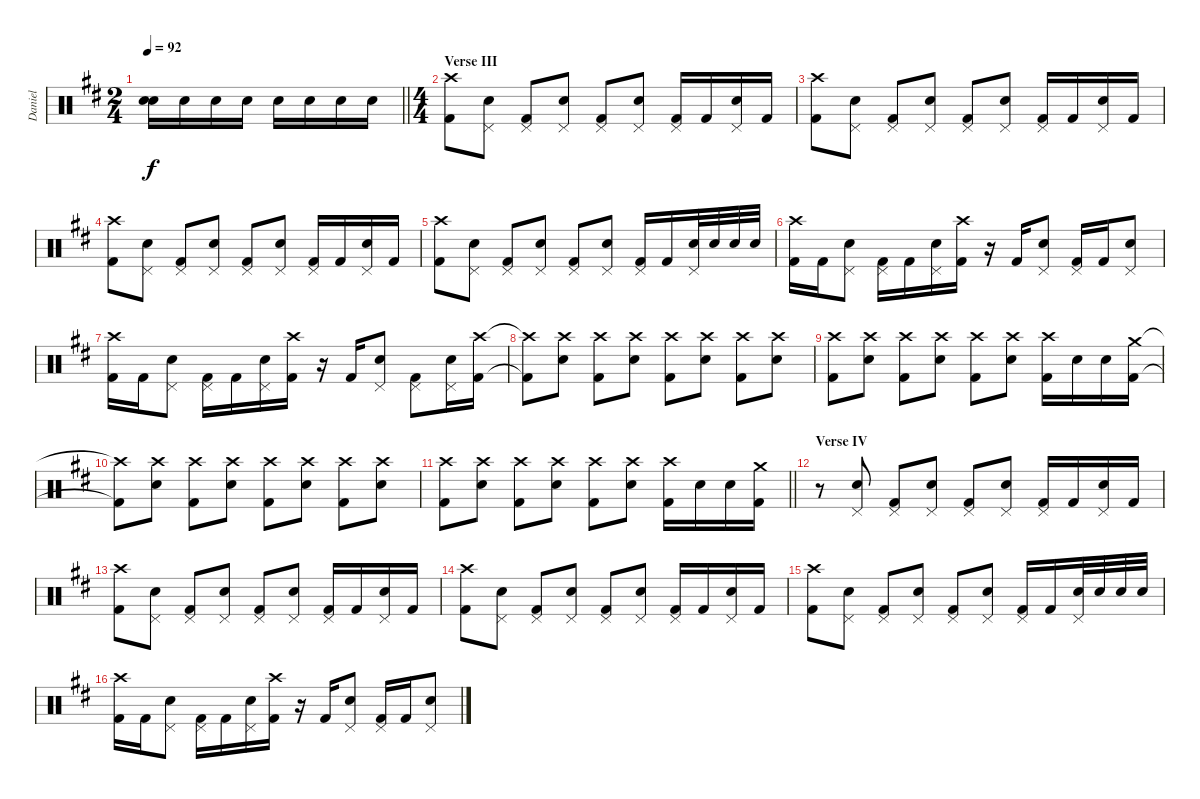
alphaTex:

\track ("Daniel" "Daniel") {instrument percussion}
\staff {score}
\articulation defaults
\ts (2 4)
\tempo 92
\clef neutral
\barLineRight lightlight
\ks bminor
("Snare (hit)"{t} "Snare (hit)"{t}).16{dy f} "Electric Snare (hit)".16 "Electric Snare (hit)".16 "Electric Snare (hit)".16 "Electric Snare (hit)".16 "Electric Snare (hit)".16 "Electric Snare (hit)".16 "Electric Snare (hit)".16 |
\ts (4 4)
\section ("" "Verse III")
("Crash high (hit)" "Kick (hit) 2").8 ("Pedal Hi-Hat (hit)" "Electric Snare (hit)").8 ("Pedal Hi-Hat (hit)" "Kick (hit) 2").8 ("Pedal Hi-Hat (hit)" "Electric Snare (hit)").8 ("Pedal Hi-Hat (hit)" "Kick (hit) 2").8 ("Pedal Hi-Hat (hit)" "Electric Snare (hit)").8 ("Pedal Hi-Hat (hit)" "Kick (hit) 2").16 "Kick (hit) 2".16 ("Pedal Hi-Hat (hit)" "Electric Snare (hit)").16 "Kick (hit) 2".16 |
("Crash high (hit)" "Kick (hit) 2").8 ("Pedal Hi-Hat (hit)" "Electric Snare (hit)").8 ("Pedal Hi-Hat (hit)" "Kick (hit) 2").8 ("Pedal Hi-Hat (hit)" "Electric Snare (hit)").8 ("Pedal Hi-Hat (hit)" "Kick (hit) 2").8 ("Pedal Hi-Hat (hit)" "Electric Snare (hit)").8 ("Pedal Hi-Hat (hit)" "Kick (hit) 2").16 "Kick (hit) 2".16 ("Pedal Hi-Hat (hit)" "Electric Snare (hit)").16 "Kick (hit) 2".16 |
("Crash high (hit)" "Kick (hit) 2").8 ("Pedal Hi-Hat (hit)" "Electric Snare (hit)").8 ("Pedal Hi-Hat (hit)" "Kick (hit) 2").8 ("Pedal Hi-Hat (hit)" "Electric Snare (hit)").8 ("Pedal Hi-Hat (hit)" "Kick (hit) 2").8 ("Pedal Hi-Hat (hit)" "Electric Snare (hit)").8 ("Pedal Hi-Hat (hit)" "Kick (hit) 2").16 "Kick (hit) 2".16 ("Pedal Hi-Hat (hit)" "Electric Snare (hit)").16 "Kick (hit) 2".16 |
("Crash high (hit)" "Kick (hit) 2").8 ("Pedal Hi-Hat (hit)" "Electric Snare (hit)").8 ("Pedal Hi-Hat (hit)" "Kick (hit) 2").8 ("Pedal Hi-Hat (hit)" "Electric Snare (hit)").8 ("Pedal Hi-Hat (hit)" "Kick (hit) 2").8 ("Pedal Hi-Hat (hit)" "Electric Snare (hit)").8 ("Pedal Hi-Hat (hit)" "Kick (hit) 2").16 "Kick (hit) 2".16 ("Pedal Hi-Hat (hit)" "Electric Snare (hit)").32 "Electric Snare (hit)".32 "Electric Snare (hit)".32 "Electric Snare (hit)".32 |
("Crash high (hit)" "Kick (hit) 2").16 "Kick (hit) 2".16 ("Pedal Hi-Hat (hit)" "Electric Snare (hit)").8 ("Pedal Hi-Hat (hit)" "Kick (hit) 2").16 "Kick (hit) 2".16 ("Pedal Hi-Hat (hit)" "Electric Snare (hit)").16 ("Crash high (hit)" "Kick (hit) 2").16 r.16 "Kick (hit) 2".16 ("Pedal Hi-Hat (hit)" "Electric Snare (hit)").8 ("Pedal Hi-Hat (hit)" "Kick (hit) 2").16 "Kick (hit) 2".16 ("Pedal Hi-Hat (hit)" "Electric Snare (hit)").8 |
("Crash high (hit)" "Kick (hit) 2").16 "Kick (hit) 2".16 ("Pedal Hi-Hat (hit)" "Electric Snare (hit)").8 ("Pedal Hi-Hat (hit)" "Kick (hit) 2").16 "Kick (hit) 2".16 ("Pedal Hi-Hat (hit)" "Electric Snare (hit)").16 ("Crash high (hit)" "Kick (hit) 2").16 r.16 "Kick (hit) 2".16 ("Pedal Hi-Hat (hit)" "Electric Snare (hit)").8 ("Pedal Hi-Hat (hit)" "Kick (hit) 2").8 ("Pedal Hi-Hat (hit)" "Electric Snare (hit)").16 ("Crash high (hit)" "Kick (hit) 2").16 |
("Crash high (hit)"{t} "Kick (hit) 2"{t}).8 ("Crash high (hit)" "Electric Snare (hit)").8 ("Crash high (hit)" "Kick (hit) 2").8 ("Crash high (hit)" "Electric Snare (hit)").8 ("Crash high (hit)" "Kick (hit) 2").8 ("Crash high (hit)" "Electric Snare (hit)").8 ("Crash high (hit)" "Kick (hit) 2").8 ("Crash high (hit)" "Electric Snare (hit)").8 |
("Crash high (hit)" "Kick (hit) 2").8 ("Crash high (hit)" "Electric Snare (hit)").8 ("Crash high (hit)" "Kick (hit) 2").8 ("Crash high (hit)" "Electric Snare (hit)").8 ("Crash high (hit)" "Kick (hit) 2").8 ("Crash high (hit)" "Electric Snare (hit)").8 ("Crash high (hit)" "Kick (hit) 2").16 "Electric Snare (hit)".16 "Electric Snare (hit)".16 ("Crash medium (hit)" "Kick (hit) 2").16 |
("Crash high (hit)"{t} "Kick (hit) 2"{t}).8 ("Crash high (hit)" "Electric Snare (hit)").8 ("Crash high (hit)" "Kick (hit) 2").8 ("Crash high (hit)" "Electric Snare (hit)").8 ("Crash high (hit)" "Kick (hit) 2").8 ("Crash high (hit)" "Electric Snare (hit)").8 ("Crash high (hit)" "Kick (hit) 2").8 ("Crash high (hit)" "Electric Snare (hit)").8 |
\barLineRight lightlight
("Crash high (hit)" "Kick (hit) 2").8 ("Crash high (hit)" "Electric Snare (hit)").8 ("Crash high (hit)" "Kick (hit) 2").8 ("Crash high (hit)" "Electric Snare (hit)").8 ("Crash high (hit)" "Kick (hit) 2").8 ("Crash high (hit)" "Electric Snare (hit)").8 ("Crash high (hit)" "Kick (hit) 2").16 "Electric Snare (hit)".16 "Electric Snare (hit)".16 ("Crash medium (hit)" "Kick (hit) 2").16 |
\section ("" "Verse IV")
r.8 ("Pedal Hi-Hat (hit)" "Electric Snare (hit)").8 ("Pedal Hi-Hat (hit)" "Kick (hit) 2").8 ("Pedal Hi-Hat (hit)" "Electric Snare (hit)").8 ("Pedal Hi-Hat (hit)" "Kick (hit) 2").8 ("Pedal Hi-Hat (hit)" "Electric Snare (hit)").8 ("Pedal Hi-Hat (hit)" "Kick (hit) 2").16 "Kick (hit) 2".16 ("Pedal Hi-Hat (hit)" "Electric Snare (hit)").16 "Kick (hit) 2".16 |
("Crash high (hit)" "Kick (hit) 2").8 ("Pedal Hi-Hat (hit)" "Electric Snare (hit)").8 ("Pedal Hi-Hat (hit)" "Kick (hit) 2").8 ("Pedal Hi-Hat (hit)" "Electric Snare (hit)").8 ("Pedal Hi-Hat (hit)" "Kick (hit) 2").8 ("Pedal Hi-Hat (hit)" "Electric Snare (hit)").8 ("Pedal Hi-Hat (hit)" "Kick (hit) 2").16 "Kick (hit) 2".16 ("Pedal Hi-Hat (hit)" "Electric Snare (hit)").16 "Kick (hit) 2".16 |
("Crash high (hit)" "Kick (hit) 2").8 ("Pedal Hi-Hat (hit)" "Electric Snare (hit)").8 ("Pedal Hi-Hat (hit)" "Kick (hit) 2").8 ("Pedal Hi-Hat (hit)" "Electric Snare (hit)").8 ("Pedal Hi-Hat (hit)" "Kick (hit) 2").8 ("Pedal Hi-Hat (hit)" "Electric Snare (hit)").8 ("Pedal Hi-Hat (hit)" "Kick (hit) 2").16 "Kick (hit) 2".16 ("Pedal Hi-Hat (hit)" "Electric Snare (hit)").16 "Kick (hit) 2".16 |
("Crash high (hit)" "Kick (hit) 2").8 ("Pedal Hi-Hat (hit)" "Electric Snare (hit)").8 ("Pedal Hi-Hat (hit)" "Kick (hit) 2").8 ("Pedal Hi-Hat (hit)" "Electric Snare (hit)").8 ("Pedal Hi-Hat (hit)" "Kick (hit) 2").8 ("Pedal Hi-Hat (hit)" "Electric Snare (hit)").8 ("Pedal Hi-Hat (hit)" "Kick (hit) 2").16 "Kick (hit) 2".16 ("Pedal Hi-Hat (hit)" "Electric Snare (hit)").32 "Electric Snare (hit)".32 "Electric Snare (hit)".32 "Electric Snare (hit)".32 |
("Crash high (hit)" "Kick (hit) 2").16 "Kick (hit) 2".16 ("Pedal Hi-Hat (hit)" "Electric Snare (hit)").8 ("Pedal Hi-Hat (hit)" "Kick (hit) 2").16 "Kick (hit) 2".16 ("Pedal Hi-Hat (hit)" "Electric Snare (hit)").16 ("Crash high (hit)" "Kick (hit) 2").16 r.16 "Kick (hit) 2".16 ("Pedal Hi-Hat (hit)" "Electric Snare (hit)").8 ("Pedal Hi-Hat (hit)" "Kick (hit) 2").16 "Kick (hit) 2".16 ("Pedal Hi-Hat (hit)" "Electric Snare (hit)").8
